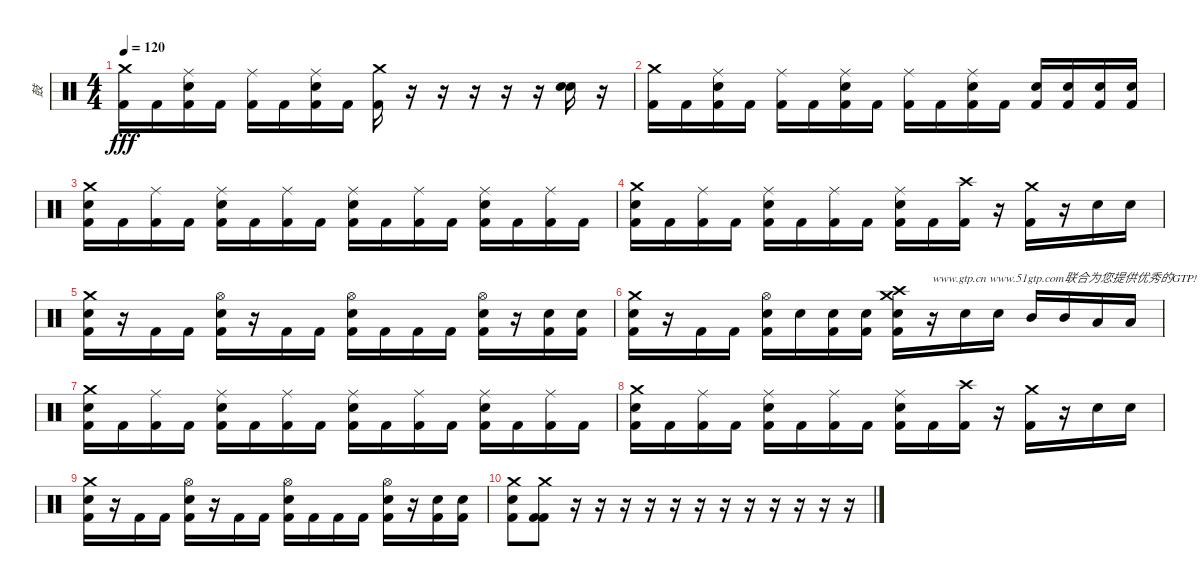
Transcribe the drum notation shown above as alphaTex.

\track ("鼓" "鼓") {instrument percussion}
\staff {score}
\articulation defaults
\ts (4 4)
\tempo 120
\clef neutral
\ks c
("Crash medium (hit)" "Kick (hit) 2").16{dy fff} "Kick (hit) 2".16 ("Ride (middle)" "Snare (hit) 2" "Kick (hit) 2").16 "Kick (hit) 2".16 ("Ride (middle)" "Kick (hit) 2").16 "Kick (hit) 2".16 ("Ride (middle)" "Snare (hit) 2" "Kick (hit) 2").16 "Kick (hit) 2".16 ("Crash medium (hit)" "Kick (hit) 2").16 r.16 r.16 r.16 r.16 r.16 ("Snare (hit) 2" "Snare (hit) 2").16 r.16 |
("Crash medium (hit)" "Kick (hit) 2").16 "Kick (hit) 2".16 ("Ride (middle)" "Snare (hit) 2" "Kick (hit) 2").16 "Kick (hit) 2".16 ("Ride (middle)" "Kick (hit) 2").16 "Kick (hit) 2".16 ("Ride (middle)" "Snare (hit) 2" "Kick (hit) 2").16 "Kick (hit) 2".16 ("Ride (middle)" "Kick (hit) 2").16 "Kick (hit) 2".16 ("Ride (middle)" "Snare (hit) 2" "Kick (hit) 2").16 "Kick (hit) 2".16 ("Snare (hit) 2" "Kick (hit) 2").16 ("Snare (hit) 2" "Kick (hit) 2").16 ("Snare (hit) 2" "Kick (hit) 2").16 ("Snare (hit) 2" "Kick (hit) 2").16 |
("Crash medium (hit)" "Snare (hit) 2" "Kick (hit) 2").16 "Kick (hit) 2".16 ("Ride (middle)" "Kick (hit) 2").16 "Kick (hit) 2".16 ("Ride (middle)" "Snare (hit) 2" "Kick (hit) 2").16 "Kick (hit) 2".16 ("Ride (middle)" "Kick (hit) 2").16 "Kick (hit) 2".16 ("Ride (middle)" "Snare (hit) 2" "Kick (hit) 2").16 "Kick (hit) 2".16 ("Ride (middle)" "Kick (hit) 2").16 "Kick (hit) 2".16 ("Ride (middle)" "Snare (hit) 2" "Kick (hit) 2").16 "Kick (hit) 2".16 ("Ride (middle)" "Kick (hit) 2").16 "Kick (hit) 2".16 |
("Crash medium (hit)" "Snare (hit) 2" "Kick (hit) 2").16 "Kick (hit) 2".16 ("Ride (middle)" "Kick (hit) 2").16 "Kick (hit) 2".16 ("Ride (middle)" "Snare (hit) 2" "Kick (hit) 2").16 "Kick (hit) 2".16 ("Ride (middle)" "Kick (hit) 2").16 "Kick (hit) 2".16 ("Ride (middle)" "Snare (hit) 2" "Kick (hit) 2").16 "Kick (hit) 2".16 ("Crash high (hit)" "Kick (hit) 2").16 r.16 ("Crash medium (hit)" "Kick (hit) 2").16 r.16 "Snare (hit) 2".16 "Snare (hit) 2".16 |
("Crash medium (hit)" "Snare (hit) 2" "Kick (hit) 2").16 r.16 "Kick (hit) 2".16 "Kick (hit) 2".16 ("Hi-Hat (open)" "Snare (hit) 2" "Kick (hit) 2").16 r.16 "Kick (hit) 2".16 "Kick (hit) 2".16 ("Hi-Hat (open)" "Snare (hit) 2" "Kick (hit) 2").16 "Kick (hit) 2".16 "Kick (hit) 2".16 "Kick (hit) 2".16 ("Hi-Hat (open)" "Snare (hit) 2" "Kick (hit) 2").16 r.16 ("Snare (hit) 2" "Kick (hit) 2").16 ("Snare (hit) 2" "Kick (hit) 2").16 |
("Crash medium (hit)" "Snare (hit) 2" "Kick (hit) 2").16 r.16 "Kick (hit) 2".16 "Kick (hit) 2".16 ("Hi-Hat (open)" "Snare (hit) 2" "Kick (hit) 2").16 "Snare (hit) 2".16 ("Snare (hit) 2" "Kick (hit) 2").16 ("Snare (hit) 2" "Kick (hit) 2").16 ("Crash medium (hit)" "Crash high (hit)" "Snare (hit) 2" "Kick (hit) 2").16 r.16{txt "www.gtp.cn www.51gtp.com联合为您提供优秀的GTP!"} "Snare (hit) 2".16 "Snare (hit) 2".16 "Mid Tom (hit)".16 "Mid Tom (hit)".16 "Low Tom (hit)".16 "Low Tom (hit)".16 |
("Crash medium (hit)" "Snare (hit) 2" "Kick (hit) 2").16 "Kick (hit) 2".16 ("Ride (middle)" "Kick (hit) 2").16 "Kick (hit) 2".16 ("Ride (middle)" "Snare (hit) 2" "Kick (hit) 2").16 "Kick (hit) 2".16 ("Ride (middle)" "Kick (hit) 2").16 "Kick (hit) 2".16 ("Ride (middle)" "Snare (hit) 2" "Kick (hit) 2").16 "Kick (hit) 2".16 ("Ride (middle)" "Kick (hit) 2").16 "Kick (hit) 2".16 ("Ride (middle)" "Snare (hit) 2" "Kick (hit) 2").16 "Kick (hit) 2".16 ("Ride (middle)" "Kick (hit) 2").16 "Kick (hit) 2".16 |
("Crash medium (hit)" "Snare (hit) 2" "Kick (hit) 2").16 "Kick (hit) 2".16 ("Ride (middle)" "Kick (hit) 2").16 "Kick (hit) 2".16 ("Ride (middle)" "Snare (hit) 2" "Kick (hit) 2").16 "Kick (hit) 2".16 ("Ride (middle)" "Kick (hit) 2").16 "Kick (hit) 2".16 ("Ride (middle)" "Snare (hit) 2" "Kick (hit) 2").16 "Kick (hit) 2".16 ("Crash high (hit)" "Kick (hit) 2").16 r.16 ("Crash medium (hit)" "Kick (hit) 2").16 r.16 "Snare (hit) 2".16 "Snare (hit) 2".16 |
("Crash medium (hit)" "Snare (hit) 2" "Kick (hit) 2").16 r.16 "Kick (hit) 2".16 "Kick (hit) 2".16 ("Hi-Hat (open)" "Snare (hit) 2" "Kick (hit) 2").16 r.16 "Kick (hit) 2".16 "Kick (hit) 2".16 ("Hi-Hat (open)" "Snare (hit) 2" "Kick (hit) 2").16 "Kick (hit) 2".16 "Kick (hit) 2".16 "Kick (hit) 2".16 ("Hi-Hat (open)" "Snare (hit) 2" "Kick (hit) 2").16 r.16 ("Snare (hit) 2" "Kick (hit) 2").16 ("Snare (hit) 2" "Kick (hit) 2").16 |
("Crash medium (hit)" "Snare (hit) 2" "Kick (hit) 2").8 ("Crash medium (hit)" "Kick (hit) 2" "Kick (hit) 2").8 r.16 r.16 r.16 r.16 r.16 r.16 r.16 r.16 r.16 r.16 r.16 r.16
